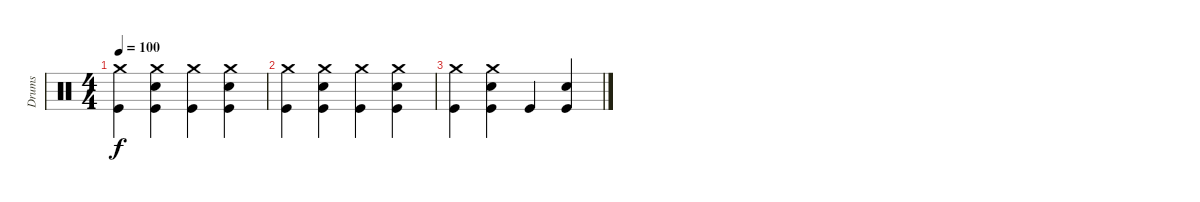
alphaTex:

\track ("Drums" "Drums") {instrument percussion}
\staff {score}
\articulation defaults
\ts (4 4)
\tempo 100
\clef neutral
\ks c
("Crash medium (hit)" "Kick (hit)").4{dy f} ("Crash medium (hit)" "Kick (hit)" "Snare (hit) 2").4 ("Crash medium (hit)" "Kick (hit)").4 ("Crash medium (hit)" "Kick (hit)" "Snare (hit) 2").4 |
("Crash medium (hit)" "Kick (hit)").4 ("Crash medium (hit)" "Kick (hit)" "Snare (hit) 2").4 ("Crash medium (hit)" "Kick (hit)").4 ("Crash medium (hit)" "Kick (hit)" "Snare (hit) 2").4 |
("Crash medium (hit)" "Kick (hit)").4 ("Crash medium (hit)" "Kick (hit)" "Snare (hit) 2").4 "Kick (hit)".4 ("Kick (hit)" "Snare (hit) 2").4
